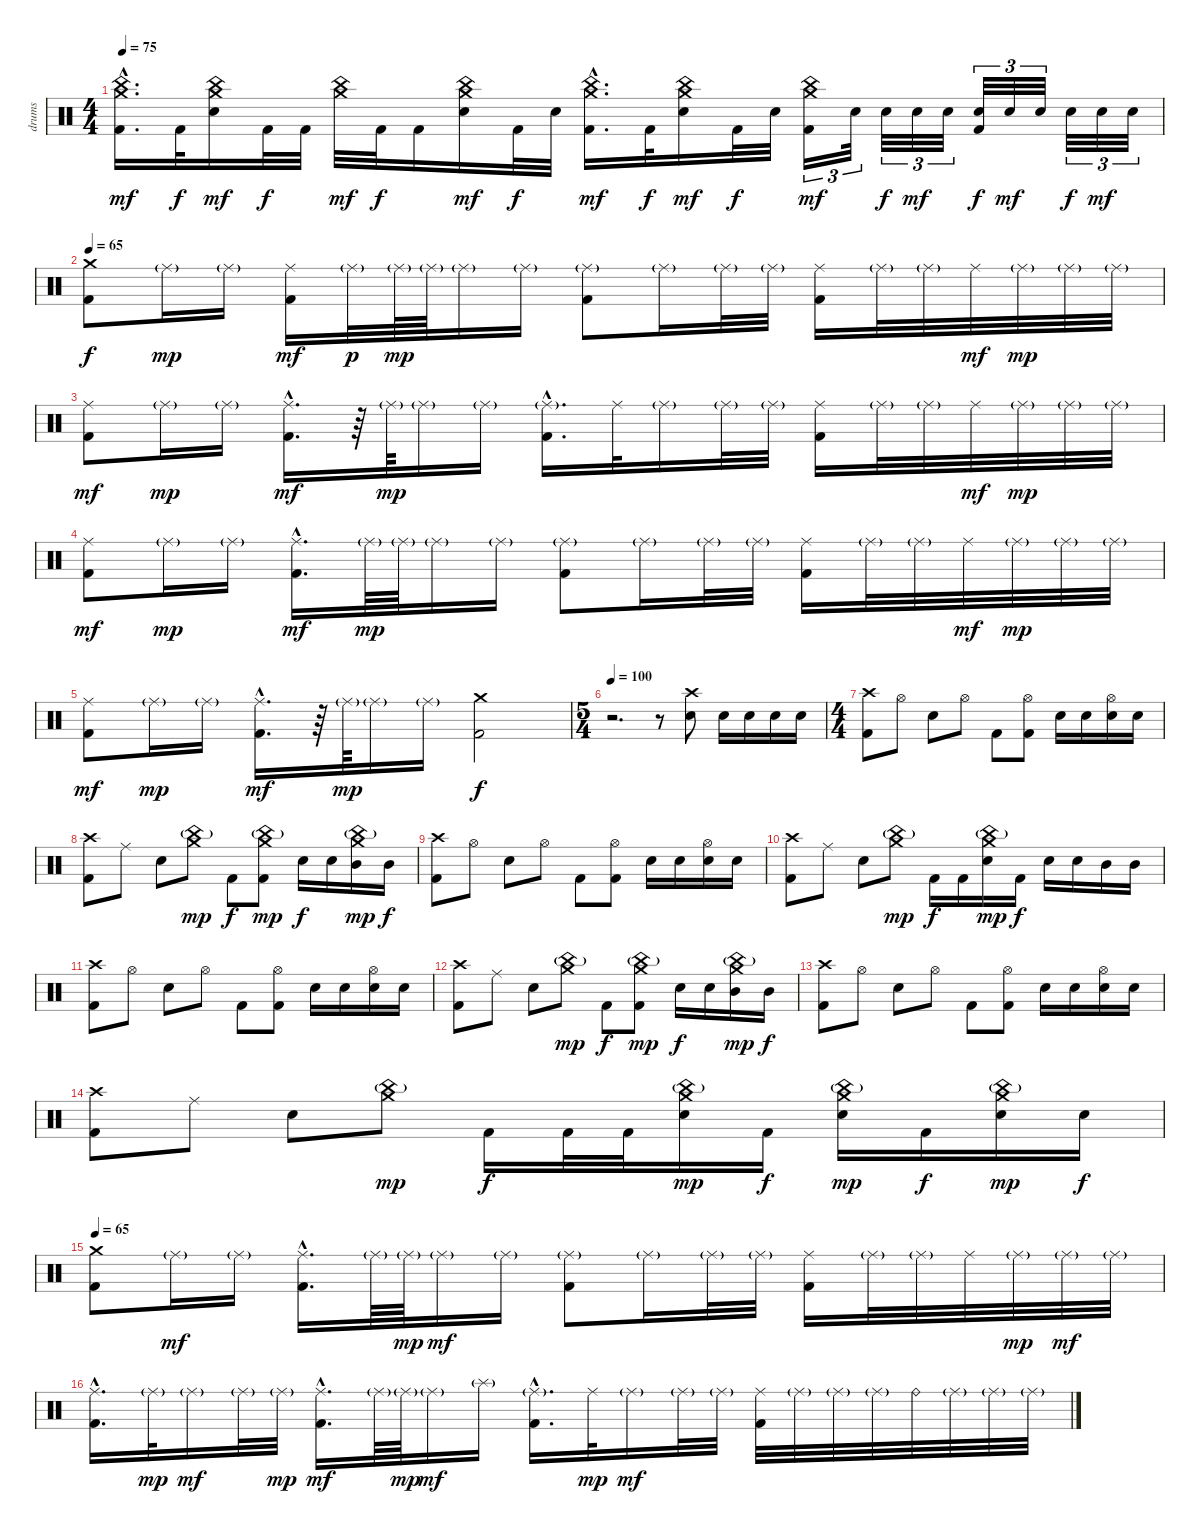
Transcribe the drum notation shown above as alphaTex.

\track ("drums" "drums") {instrument percussion}
\staff {score}
\articulation defaults
\ts (4 4)
\tempo 75
\clef neutral
\ks c
("Crash medium (hit)"{hac} "China (hit)"{hac} "Kick (hit) 2"{hac}).16{d dy mf} "Kick (hit) 2".32{dy f} ("Crash medium (hit)" "China (hit)" "Electric Snare (hit)").16{dy mf} "Kick (hit) 2".32{dy f} "Kick (hit) 2".32 ("Crash medium (hit)" "China (hit)").32{dy mf} "Kick (hit) 2".32{dy f} "Kick (hit) 2".16 ("Crash medium (hit)" "China (hit)" "Electric Snare (hit)").16{dy mf} "Kick (hit) 2".32{dy f} "Electric Snare (hit)".32 ("Crash medium (hit)"{hac} "China (hit)"{hac} "Kick (hit) 2"{hac}).16{d dy mf} "Kick (hit) 2".32{dy f} ("Crash medium (hit)" "China (hit)" "Electric Snare (hit)").16{dy mf} "Kick (hit) 2".32{dy f} "Electric Snare (hit)".32 ("Crash medium (hit)" "China (hit)" "Kick (hit) 2").16{tu (3 2) dy mf} "Electric Snare (hit)".32{tu (3 2)} "Electric Snare (hit)".32{tu (3 2) dy f} "Electric Snare (hit)".32{tu (3 2) dy mf} "Electric Snare (hit)".32{tu (3 2)} ("Electric Snare (hit)" "Kick (hit) 2").32{tu (3 2) dy f} "Electric Snare (hit)".32{tu (3 2) dy mf} "Electric Snare (hit)".32{tu (3 2)} "Electric Snare (hit)".32{tu (3 2) dy f} "Electric Snare (hit)".32{tu (3 2) dy mf} "Electric Snare (hit)".32{tu (3 2)} |
\tempo 65
("Crash medium (hit)" "Kick (hit) 2").8{dy f} "Ride (middle)"{g}.16{dy mp} "Ride (middle)"{g}.16 ("Ride (middle)" "Kick (hit) 2").16{dy mf} "Ride (middle)"{g}.32{dy p} "Ride (middle)"{g}.64{dy mp} "Ride (middle)"{g}.64 "Ride (middle)"{g}.16 "Ride (middle)"{g}.16 ("Ride (middle)"{g} "Kick (hit) 2").8 "Ride (middle)"{g}.16 "Ride (middle)"{g}.32 "Ride (middle)"{g}.32 ("Ride (middle)" "Kick (hit) 2").16 "Ride (middle)"{g}.32 "Ride (middle)"{g}.32 "Ride (middle)".32{dy mf} "Ride (middle)"{g}.32{dy mp} "Ride (middle)"{g}.32 "Ride (middle)"{g}.32 |
("Ride (middle)" "Kick (hit) 2").8{dy mf} "Ride (middle)"{g}.16{dy mp} "Ride (middle)"{g}.16 ("Ride (middle)"{hac} "Kick (hit) 2"{hac}).16{d dy mf} r.64 "Ride (middle)"{g}.64{dy mp} "Ride (middle)"{g}.16 "Ride (middle)"{g}.16 ("Ride (middle)"{g hac} "Kick (hit) 2"{hac}).16{d} "Ride (middle)".32 "Ride (middle)"{g}.16 "Ride (middle)"{g}.32 "Ride (middle)"{g}.32 ("Ride (middle)" "Kick (hit) 2").16 "Ride (middle)"{g}.32 "Ride (middle)"{g}.32 "Ride (middle)".32{dy mf} "Ride (middle)"{g}.32{dy mp} "Ride (middle)"{g}.32 "Ride (middle)"{g}.32 |
("Ride (middle)" "Kick (hit) 2").8{dy mf} "Ride (middle)"{g}.16{dy mp} "Ride (middle)"{g}.16 ("Ride (middle)"{hac} "Kick (hit) 2"{hac}).16{d dy mf} "Ride (middle)"{g}.64{dy mp} "Ride (middle)"{g}.64 "Ride (middle)"{g}.16 "Ride (middle)"{g}.16 ("Ride (middle)"{g} "Kick (hit) 2").8 "Ride (middle)"{g}.16 "Ride (middle)"{g}.32 "Ride (middle)"{g}.32 ("Ride (middle)" "Kick (hit) 2").16 "Ride (middle)"{g}.32 "Ride (middle)"{g}.32 "Ride (middle)".32{dy mf} "Ride (middle)"{g}.32{dy mp} "Ride (middle)"{g}.32 "Ride (middle)"{g}.32 |
("Ride (middle)" "Kick (hit) 2").8{dy mf} "Ride (middle)"{g}.16{dy mp} "Ride (middle)"{g}.16 ("Ride (middle)"{hac} "Kick (hit) 2"{hac}).16{d dy mf} r.64 "Ride (middle)"{g}.64{dy mp} "Ride (middle)"{g}.16 "Ride (middle)"{g}.16 ("Crash medium (hit)" "Kick (hit) 2").2{dy f} |
\ts (5 4)
\tempo 100
r.2{d} r.8 ("Crash high (hit)" "Electric Snare (hit)").8 "Electric Snare (hit)".16 "Electric Snare (hit)".16 "Electric Snare (hit)".16 "Electric Snare (hit)".16 |
\ts (4 4)
("Crash high (hit)" "Kick (hit) 2").8 "Hi-Hat (open)".8 "Electric Snare (hit)".8 "Hi-Hat (open)".8 "Kick (hit) 2".8 ("Hi-Hat (open)" "Kick (hit) 2").8 "Electric Snare (hit)".16 "Electric Snare (hit)".16 ("Hi-Hat (open)" "Electric Snare (hit)").16 "Electric Snare (hit)".16 |
("Crash high (hit)" "Kick (hit) 2").8 "Ride (middle)".8 "Electric Snare (hit)".8 ("Crash medium (hit)" "China (hit)"{g}).8{dy mp} "Kick (hit) 2".8{dy f} ("Crash medium (hit)" "China (hit)"{g} "Kick (hit) 2").8{dy mp} "Electric Snare (hit)".16{dy f} "Electric Snare (hit)".16 ("Crash medium (hit)" "China (hit)"{g} "Mid Tom (hit)").16{dy mp} "Mid Tom (hit)".16{dy f} |
("Crash high (hit)" "Kick (hit) 2").8 "Hi-Hat (open)".8 "Electric Snare (hit)".8 "Hi-Hat (open)".8 "Kick (hit) 2".8 ("Hi-Hat (open)" "Kick (hit) 2").8 "Electric Snare (hit)".16 "Electric Snare (hit)".16 ("Hi-Hat (open)" "Electric Snare (hit)").16 "Electric Snare (hit)".16 |
("Crash high (hit)" "Kick (hit) 2").8 "Ride (middle)".8 "Electric Snare (hit)".8 ("Crash medium (hit)" "China (hit)"{g}).8{dy mp} "Kick (hit) 2".16{dy f} "Kick (hit) 2".16 ("Crash medium (hit)" "China (hit)"{g} "Electric Snare (hit)").16{dy mp} "Kick (hit) 2".16{dy f} "Electric Snare (hit)".16 "Electric Snare (hit)".16 "Mid Tom (hit)".16 "Mid Tom (hit)".16 |
("Crash high (hit)" "Kick (hit) 2").8 "Hi-Hat (open)".8 "Electric Snare (hit)".8 "Hi-Hat (open)".8 "Kick (hit) 2".8 ("Hi-Hat (open)" "Kick (hit) 2").8 "Electric Snare (hit)".16 "Electric Snare (hit)".16 ("Hi-Hat (open)" "Electric Snare (hit)").16 "Electric Snare (hit)".16 |
("Crash high (hit)" "Kick (hit) 2").8 "Ride (middle)".8 "Electric Snare (hit)".8 ("Crash medium (hit)" "China (hit)"{g}).8{dy mp} "Kick (hit) 2".8{dy f} ("Crash medium (hit)" "China (hit)"{g} "Kick (hit) 2").8{dy mp} "Electric Snare (hit)".16{dy f} "Electric Snare (hit)".16 ("Crash medium (hit)" "China (hit)"{g} "Mid Tom (hit)").16{dy mp} "Mid Tom (hit)".16{dy f} |
("Crash high (hit)" "Kick (hit) 2").8 "Hi-Hat (open)".8 "Electric Snare (hit)".8 "Hi-Hat (open)".8 "Kick (hit) 2".8 ("Hi-Hat (open)" "Kick (hit) 2").8 "Electric Snare (hit)".16 "Electric Snare (hit)".16 ("Hi-Hat (open)" "Electric Snare (hit)").16 "Electric Snare (hit)".16 |
("Crash high (hit)" "Kick (hit) 2").8 "Ride (middle)".8 "Electric Snare (hit)".8 ("Crash medium (hit)" "China (hit)"{g}).8{dy mp} "Kick (hit) 2".16{dy f} "Kick (hit) 2".32 "Kick (hit) 2".32 ("Crash medium (hit)" "China (hit)"{g} "Electric Snare (hit)").16{dy mp} "Kick (hit) 2".16{dy f} ("Crash medium (hit)" "China (hit)"{g} "Electric Snare (hit)").16{dy mp} "Kick (hit) 2".16{dy f} ("Crash medium (hit)" "China (hit)"{g} "Electric Snare (hit)").16{dy mp} "Electric Snare (hit)".16{dy f} |
\tempo 65
("Crash medium (hit)" "Kick (hit) 2").8 "Ride (middle)"{g}.16{dy mf} "Ride (middle)"{g}.16 ("Ride (middle)"{hac} "Kick (hit) 2"{hac}).16{d} "Ride (middle)"{g}.64 "Ride (middle)"{g}.64{dy mp} "Ride (middle)"{g}.16{dy mf} "Ride (middle)"{g}.16 ("Ride (middle)"{g} "Kick (hit) 2").8 "Ride (middle)"{g}.16 "Ride (middle)"{g}.32 "Ride (middle)"{g}.32 ("Ride (middle)" "Kick (hit) 2").16 "Ride (middle)"{g}.32 "Ride (middle)"{g}.32 "Ride (middle)".32 "Ride (middle)"{g}.32{dy mp} "Ride (middle)"{g}.32{dy mf} "Ride (middle)"{g}.32 |
("Ride (middle)"{hac} "Kick (hit) 2"{hac}).16{d} "Ride (middle)"{g}.32{dy mp} "Ride (middle)"{g}.16{dy mf} "Ride (middle)"{g}.32 "Ride (middle)"{g}.32{dy mp} ("Ride (middle)"{hac} "Kick (hit) 2"{hac}).16{d dy mf} "Ride (middle)"{g}.64 "Ride (middle)"{g}.64{dy mp} "Ride (middle)"{g}.16{dy mf} "Splash (hit)"{g}.16 ("Ride (middle)"{g hac} "Kick (hit) 2"{hac}).16{d} "Ride (middle)".32{dy mp} "Ride (middle)"{g}.16{dy mf} "Ride (middle)"{g}.32 "Ride (middle)"{g}.32 ("Ride (middle)" "Kick (hit) 2").32 "Ride (middle)"{g}.32 "Ride (middle)"{g}.32 "Ride (middle)"{g}.32 "Ride (bell)".32 "Ride (middle)"{g}.32 "Ride (middle)"{g}.32 "Ride (middle)"{g}.32
